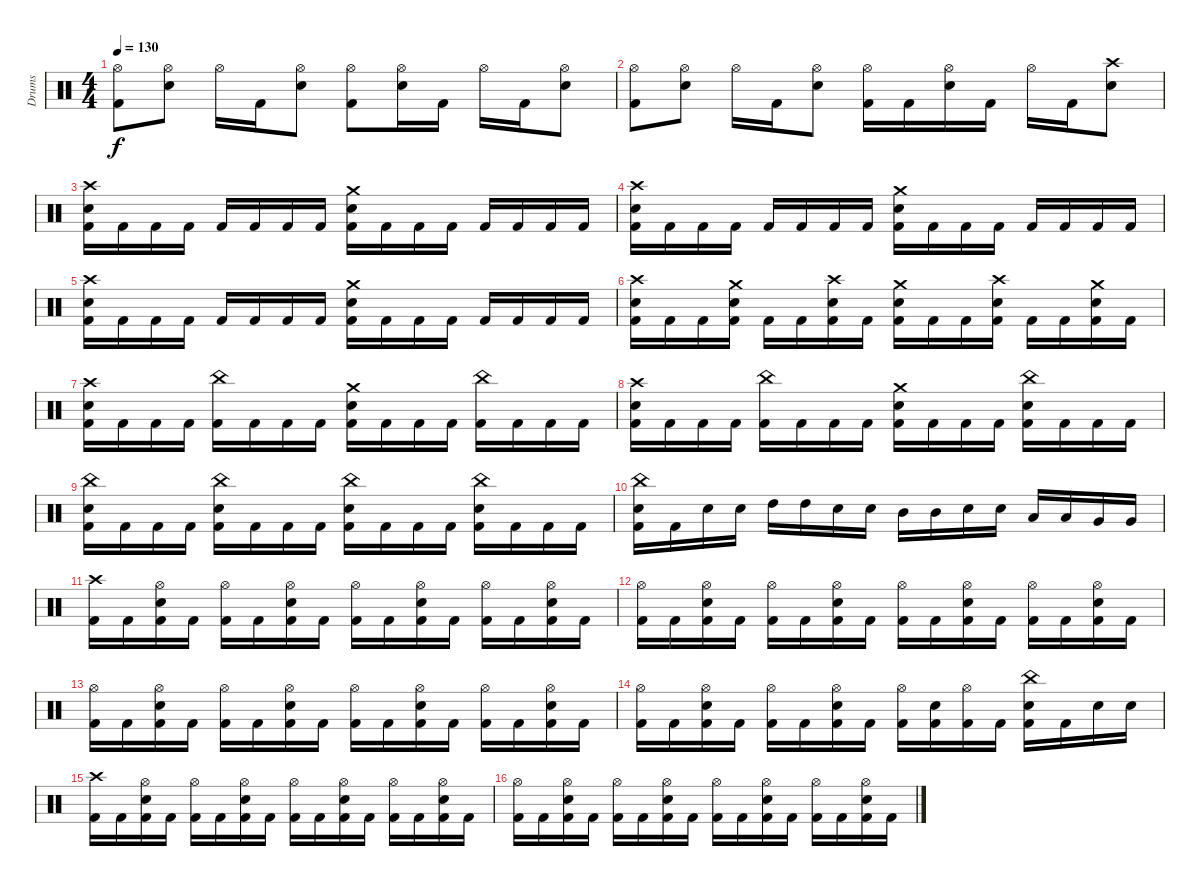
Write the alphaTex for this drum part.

\track ("Drums" "Drums") {instrument percussion}
\staff {score}
\articulation defaults
\ts (4 4)
\tempo 130
\clef neutral
\ks c
("Hi-Hat (open)" "Kick (hit) 2").8{dy f} ("Hi-Hat (open)" "Electric Snare (hit)").8 "Hi-Hat (open)".16 "Kick (hit) 2".16 ("Hi-Hat (open)" "Electric Snare (hit)").8 ("Hi-Hat (open)" "Kick (hit) 2").8 ("Hi-Hat (open)" "Electric Snare (hit)").16 "Kick (hit) 2".16 "Hi-Hat (open)".16 "Kick (hit) 2".16 ("Hi-Hat (open)" "Electric Snare (hit)").8 |
("Hi-Hat (open)" "Kick (hit) 2").8 ("Hi-Hat (open)" "Electric Snare (hit)").8 "Hi-Hat (open)".16 "Kick (hit) 2".16 ("Hi-Hat (open)" "Electric Snare (hit)").8 ("Hi-Hat (open)" "Kick (hit) 2").16 "Kick (hit) 2".16 ("Hi-Hat (open)" "Electric Snare (hit)").16 "Kick (hit) 2".16 "Hi-Hat (open)".16 "Kick (hit) 2".16 ("Crash high (hit)" "Electric Snare (hit)").8 |
("Crash high (hit)" "Electric Snare (hit)" "Kick (hit) 2").16 "Kick (hit) 2".16 "Kick (hit) 2".16 "Kick (hit) 2".16 "Kick (hit) 2".16 "Kick (hit) 2".16 "Kick (hit) 2".16 "Kick (hit) 2".16 ("Crash medium (hit)" "Electric Snare (hit)" "Kick (hit) 2").16 "Kick (hit) 2".16 "Kick (hit) 2".16 "Kick (hit) 2".16 "Kick (hit) 2".16 "Kick (hit) 2".16 "Kick (hit) 2".16 "Kick (hit) 2".16 |
("Crash high (hit)" "Electric Snare (hit)" "Kick (hit) 2").16 "Kick (hit) 2".16 "Kick (hit) 2".16 "Kick (hit) 2".16 "Kick (hit) 2".16 "Kick (hit) 2".16 "Kick (hit) 2".16 "Kick (hit) 2".16 ("Crash medium (hit)" "Electric Snare (hit)" "Kick (hit) 2").16 "Kick (hit) 2".16 "Kick (hit) 2".16 "Kick (hit) 2".16 "Kick (hit) 2".16 "Kick (hit) 2".16 "Kick (hit) 2".16 "Kick (hit) 2".16 |
("Crash high (hit)" "Electric Snare (hit)" "Kick (hit) 2").16 "Kick (hit) 2".16 "Kick (hit) 2".16 "Kick (hit) 2".16 "Kick (hit) 2".16 "Kick (hit) 2".16 "Kick (hit) 2".16 "Kick (hit) 2".16 ("Crash medium (hit)" "Electric Snare (hit)" "Kick (hit) 2").16 "Kick (hit) 2".16 "Kick (hit) 2".16 "Kick (hit) 2".16 "Kick (hit) 2".16 "Kick (hit) 2".16 "Kick (hit) 2".16 "Kick (hit) 2".16 |
("Crash high (hit)" "Electric Snare (hit)" "Kick (hit) 2").16 "Kick (hit) 2".16 "Kick (hit) 2".16 ("Crash medium (hit)" "Electric Snare (hit)" "Kick (hit) 2").16 "Kick (hit) 2".16 "Kick (hit) 2".16 ("Crash high (hit)" "Electric Snare (hit)" "Kick (hit) 2").16 "Kick (hit) 2".16 ("Crash medium (hit)" "Electric Snare (hit)" "Kick (hit) 2").16 "Kick (hit) 2".16 "Kick (hit) 2".16 ("Crash high (hit)" "Electric Snare (hit)" "Kick (hit) 2").16 "Kick (hit) 2".16 "Kick (hit) 2".16 ("Crash medium (hit)" "Electric Snare (hit)" "Kick (hit) 2").16 "Kick (hit) 2".16 |
("Crash high (hit)" "Electric Snare (hit)" "Kick (hit) 2").16 "Kick (hit) 2".16 "Kick (hit) 2".16 "Kick (hit) 2".16 ("China (hit)" "Kick (hit) 2").16 "Kick (hit) 2".16 "Kick (hit) 2".16 "Kick (hit) 2".16 ("Crash medium (hit)" "Electric Snare (hit)" "Kick (hit) 2").16 "Kick (hit) 2".16 "Kick (hit) 2".16 "Kick (hit) 2".16 ("China (hit)" "Kick (hit) 2").16 "Kick (hit) 2".16 "Kick (hit) 2".16 "Kick (hit) 2".16 |
("Crash high (hit)" "Electric Snare (hit)" "Kick (hit) 2").16 "Kick (hit) 2".16 "Kick (hit) 2".16 "Kick (hit) 2".16 ("China (hit)" "Kick (hit) 2").16 "Kick (hit) 2".16 "Kick (hit) 2".16 "Kick (hit) 2".16 ("Crash medium (hit)" "Electric Snare (hit)" "Kick (hit) 2").16 "Kick (hit) 2".16 "Kick (hit) 2".16 "Kick (hit) 2".16 ("China (hit)" "Electric Snare (hit)" "Kick (hit) 2").16 "Kick (hit) 2".16 "Kick (hit) 2".16 "Kick (hit) 2".16 |
("China (hit)" "Electric Snare (hit)" "Kick (hit) 2").16 "Kick (hit) 2".16 "Kick (hit) 2".16 "Kick (hit) 2".16 ("China (hit)" "Electric Snare (hit)" "Kick (hit) 2").16 "Kick (hit) 2".16 "Kick (hit) 2".16 "Kick (hit) 2".16 ("China (hit)" "Electric Snare (hit)" "Kick (hit) 2").16 "Kick (hit) 2".16 "Kick (hit) 2".16 "Kick (hit) 2".16 ("China (hit)" "Electric Snare (hit)" "Kick (hit) 2").16 "Kick (hit) 2".16 "Kick (hit) 2".16 "Kick (hit) 2".16 |
("China (hit)" "Electric Snare (hit)" "Kick (hit) 2").16 "Kick (hit) 2".16 "Electric Snare (hit)".16 "Electric Snare (hit)".16 "High Tom (hit)".16 "High Tom (hit)".16 "Electric Snare (hit)".16 "Electric Snare (hit)".16 "Mid Tom (hit)".16 "Mid Tom (hit)".16 "Electric Snare (hit)".16 "Electric Snare (hit)".16 "Low Tom (hit)".16 "Low Tom (hit)".16 "Very Low Tom (hit)".16 "Very Low Tom (hit)".16 |
("Crash high (hit)" "Kick (hit) 2").16 "Kick (hit) 2".16 ("Hi-Hat (open)" "Electric Snare (hit)" "Kick (hit) 2").16 "Kick (hit) 2".16 ("Hi-Hat (open)" "Kick (hit) 2").16 "Kick (hit) 2".16 ("Hi-Hat (open)" "Electric Snare (hit)" "Kick (hit) 2").16 "Kick (hit) 2".16 ("Hi-Hat (open)" "Kick (hit) 2").16 "Kick (hit) 2".16 ("Hi-Hat (open)" "Electric Snare (hit)" "Kick (hit) 2").16 "Kick (hit) 2".16 ("Hi-Hat (open)" "Kick (hit) 2").16 "Kick (hit) 2".16 ("Hi-Hat (open)" "Electric Snare (hit)" "Kick (hit) 2").16 "Kick (hit) 2".16 |
("Hi-Hat (open)" "Kick (hit) 2").16 "Kick (hit) 2".16 ("Hi-Hat (open)" "Electric Snare (hit)" "Kick (hit) 2").16 "Kick (hit) 2".16 ("Hi-Hat (open)" "Kick (hit) 2").16 "Kick (hit) 2".16 ("Hi-Hat (open)" "Electric Snare (hit)" "Kick (hit) 2").16 "Kick (hit) 2".16 ("Hi-Hat (open)" "Kick (hit) 2").16 "Kick (hit) 2".16 ("Hi-Hat (open)" "Electric Snare (hit)" "Kick (hit) 2").16 "Kick (hit) 2".16 ("Hi-Hat (open)" "Kick (hit) 2").16 "Kick (hit) 2".16 ("Hi-Hat (open)" "Electric Snare (hit)" "Kick (hit) 2").16 "Kick (hit) 2".16 |
("Hi-Hat (open)" "Kick (hit) 2").16 "Kick (hit) 2".16 ("Hi-Hat (open)" "Electric Snare (hit)" "Kick (hit) 2").16 "Kick (hit) 2".16 ("Hi-Hat (open)" "Kick (hit) 2").16 "Kick (hit) 2".16 ("Hi-Hat (open)" "Electric Snare (hit)" "Kick (hit) 2").16 "Kick (hit) 2".16 ("Hi-Hat (open)" "Kick (hit) 2").16 "Kick (hit) 2".16 ("Hi-Hat (open)" "Electric Snare (hit)" "Kick (hit) 2").16 "Kick (hit) 2".16 ("Hi-Hat (open)" "Kick (hit) 2").16 "Kick (hit) 2".16 ("Hi-Hat (open)" "Electric Snare (hit)" "Kick (hit) 2").16 "Kick (hit) 2".16 |
("Hi-Hat (open)" "Kick (hit) 2").16 "Kick (hit) 2".16 ("Hi-Hat (open)" "Electric Snare (hit)" "Kick (hit) 2").16 "Kick (hit) 2".16 ("Hi-Hat (open)" "Kick (hit) 2").16 "Kick (hit) 2".16 ("Hi-Hat (open)" "Electric Snare (hit)" "Kick (hit) 2").16 "Kick (hit) 2".16 ("Hi-Hat (open)" "Kick (hit) 2").16 ("Electric Snare (hit)" "Kick (hit) 2").16 ("Hi-Hat (open)" "Kick (hit) 2").16 "Kick (hit) 2".16 ("China (hit)" "Electric Snare (hit)" "Kick (hit) 2").16 "Kick (hit) 2".16 "Electric Snare (hit)".16 "Electric Snare (hit)".16 |
("Crash high (hit)" "Kick (hit) 2").16 "Kick (hit) 2".16 ("Hi-Hat (open)" "Electric Snare (hit)" "Kick (hit) 2").16 "Kick (hit) 2".16 ("Hi-Hat (open)" "Kick (hit) 2").16 "Kick (hit) 2".16 ("Hi-Hat (open)" "Electric Snare (hit)" "Kick (hit) 2").16 "Kick (hit) 2".16 ("Hi-Hat (open)" "Kick (hit) 2").16 "Kick (hit) 2".16 ("Hi-Hat (open)" "Electric Snare (hit)" "Kick (hit) 2").16 "Kick (hit) 2".16 ("Hi-Hat (open)" "Kick (hit) 2").16 "Kick (hit) 2".16 ("Hi-Hat (open)" "Electric Snare (hit)" "Kick (hit) 2").16 "Kick (hit) 2".16 |
("Hi-Hat (open)" "Kick (hit) 2").16 "Kick (hit) 2".16 ("Hi-Hat (open)" "Electric Snare (hit)" "Kick (hit) 2").16 "Kick (hit) 2".16 ("Hi-Hat (open)" "Kick (hit) 2").16 "Kick (hit) 2".16 ("Hi-Hat (open)" "Electric Snare (hit)" "Kick (hit) 2").16 "Kick (hit) 2".16 ("Hi-Hat (open)" "Kick (hit) 2").16 "Kick (hit) 2".16 ("Hi-Hat (open)" "Electric Snare (hit)" "Kick (hit) 2").16 "Kick (hit) 2".16 ("Hi-Hat (open)" "Kick (hit) 2").16 "Kick (hit) 2".16 ("Hi-Hat (open)" "Electric Snare (hit)" "Kick (hit) 2").16 "Kick (hit) 2".16
